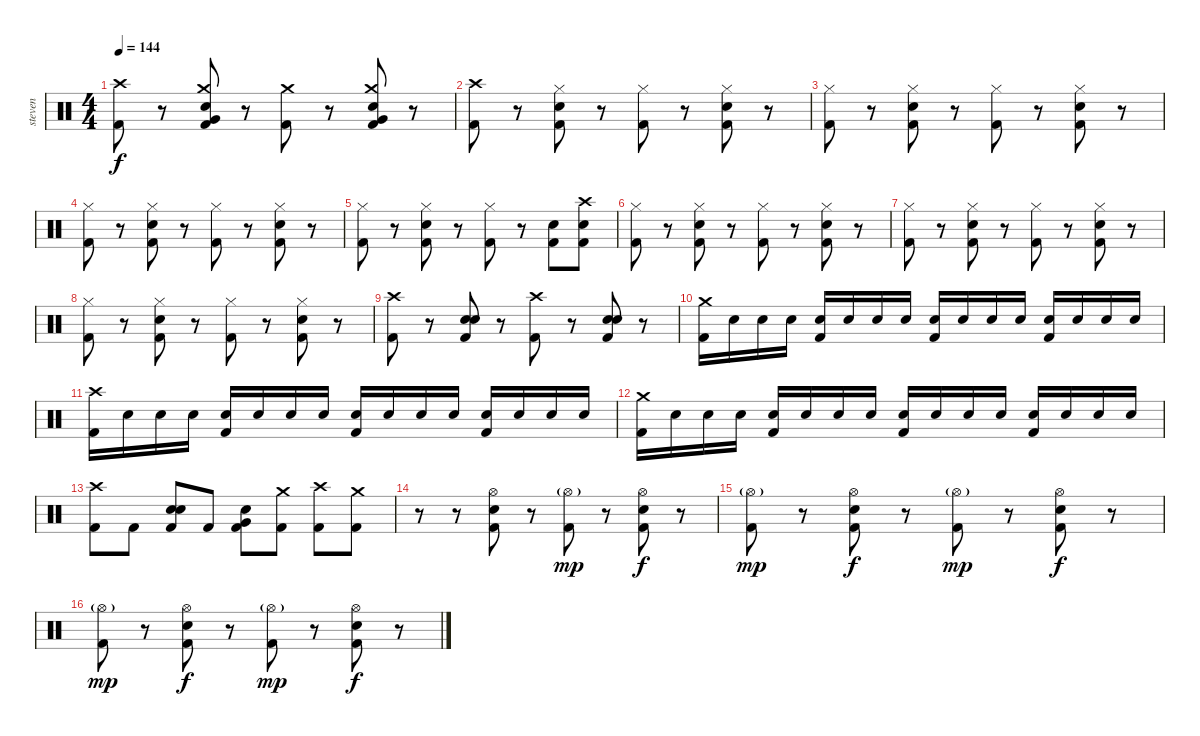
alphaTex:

\track ("steven" "steven") {instrument percussion}
\staff {score}
\articulation defaults
\ts (4 4)
\tempo 144
\clef neutral
\ks c
("Crash high (hit)" "Kick (hit) 2").8{dy f} r.8 ("Crash medium (hit)" "Electric Snare (hit)" "Very Low Tom (hit)" "Kick (hit) 2").8 r.8 ("Crash medium (hit)" "Kick (hit) 2").8 r.8 ("Crash medium (hit)" "Electric Snare (hit)" "Very Low Tom (hit)" "Kick (hit) 2").8 r.8 |
("Crash high (hit)" "Kick (hit) 2").8 r.8 ("Hi-Hat (closed)" "Electric Snare (hit)" "Kick (hit) 2").8 r.8 ("Hi-Hat (closed)" "Kick (hit) 2").8 r.8 ("Hi-Hat (closed)" "Electric Snare (hit)" "Kick (hit) 2").8 r.8 |
("Hi-Hat (closed)" "Kick (hit) 2").8 r.8 ("Hi-Hat (closed)" "Electric Snare (hit)" "Kick (hit) 2").8 r.8 ("Hi-Hat (closed)" "Kick (hit) 2").8 r.8 ("Hi-Hat (closed)" "Electric Snare (hit)" "Kick (hit) 2").8 r.8 |
("Hi-Hat (closed)" "Kick (hit) 2").8 r.8 ("Hi-Hat (closed)" "Electric Snare (hit)" "Kick (hit) 2").8 r.8 ("Hi-Hat (closed)" "Kick (hit) 2").8 r.8 ("Hi-Hat (closed)" "Electric Snare (hit)" "Kick (hit) 2").8 r.8 |
("Hi-Hat (closed)" "Kick (hit) 2").8 r.8 ("Hi-Hat (closed)" "Electric Snare (hit)" "Kick (hit) 2").8 r.8 ("Hi-Hat (closed)" "Kick (hit) 2").8 r.8 ("Electric Snare (hit)" "Kick (hit) 2").8 ("Crash high (hit)" "Electric Snare (hit)" "Kick (hit) 2").8 |
("Hi-Hat (closed)" "Kick (hit) 2").8 r.8 ("Hi-Hat (closed)" "Electric Snare (hit)" "Kick (hit) 2").8 r.8 ("Hi-Hat (closed)" "Kick (hit) 2").8 r.8 ("Hi-Hat (closed)" "Electric Snare (hit)" "Kick (hit) 2").8 r.8 |
("Hi-Hat (closed)" "Kick (hit) 2").8 r.8 ("Hi-Hat (closed)" "Electric Snare (hit)" "Kick (hit) 2").8 r.8 ("Hi-Hat (closed)" "Kick (hit) 2").8 r.8 ("Hi-Hat (closed)" "Electric Snare (hit)" "Kick (hit) 2").8 r.8 |
("Hi-Hat (closed)" "Kick (hit) 2").8 r.8 ("Hi-Hat (closed)" "Electric Snare (hit)" "Kick (hit) 2").8 r.8 ("Hi-Hat (closed)" "Kick (hit) 2").8 r.8 ("Hi-Hat (closed)" "Electric Snare (hit)" "Kick (hit) 2").8 r.8 |
("Crash high (hit)" "Kick (hit) 2").8 r.8 ("Electric Snare (hit)" "Electric Snare (hit)" "Kick (hit) 2").8 r.8 ("Crash high (hit)" "Kick (hit) 2").8 r.8 ("Electric Snare (hit)" "Electric Snare (hit)" "Kick (hit) 2").8 r.8 |
("Crash medium (hit)" "Kick (hit) 2").16 "Electric Snare (hit)".16 "Electric Snare (hit)".16 "Electric Snare (hit)".16 ("Electric Snare (hit)" "Kick (hit) 2").16 "Electric Snare (hit)".16 "Electric Snare (hit)".16 "Electric Snare (hit)".16 ("Electric Snare (hit)" "Kick (hit) 2").16 "Electric Snare (hit)".16 "Electric Snare (hit)".16 "Electric Snare (hit)".16 ("Electric Snare (hit)" "Kick (hit) 2").16 "Electric Snare (hit)".16 "Electric Snare (hit)".16 "Electric Snare (hit)".16 |
("Crash high (hit)" "Kick (hit) 2").16 "Electric Snare (hit)".16 "Electric Snare (hit)".16 "Electric Snare (hit)".16 ("Electric Snare (hit)" "Kick (hit) 2").16 "Electric Snare (hit)".16 "Electric Snare (hit)".16 "Electric Snare (hit)".16 ("Electric Snare (hit)" "Kick (hit) 2").16 "Electric Snare (hit)".16 "Electric Snare (hit)".16 "Electric Snare (hit)".16 ("Electric Snare (hit)" "Kick (hit) 2").16 "Electric Snare (hit)".16 "Electric Snare (hit)".16 "Electric Snare (hit)".16 |
("Crash medium (hit)" "Kick (hit) 2").16 "Electric Snare (hit)".16 "Electric Snare (hit)".16 "Electric Snare (hit)".16 ("Electric Snare (hit)" "Kick (hit) 2").16 "Electric Snare (hit)".16 "Electric Snare (hit)".16 "Electric Snare (hit)".16 ("Electric Snare (hit)" "Kick (hit) 2").16 "Electric Snare (hit)".16 "Electric Snare (hit)".16 "Electric Snare (hit)".16 ("Electric Snare (hit)" "Kick (hit) 2").16 "Electric Snare (hit)".16 "Electric Snare (hit)".16 "Electric Snare (hit)".16 |
("Crash high (hit)" "Kick (hit) 2").8 "Kick (hit) 2".8 ("Electric Snare (hit)" "Electric Snare (hit)" "Kick (hit) 2").8 "Kick (hit) 2".8 ("Electric Snare (hit)" "Very Low Tom (hit)" "Kick (hit) 2").8 ("Crash medium (hit)" "Kick (hit) 2").8 ("Crash high (hit)" "Kick (hit) 2").8 ("Crash medium (hit)" "Kick (hit) 2").8 |
r.8 r.8 ("Hi-Hat (open)" "Electric Snare (hit)" "Kick (hit) 2").8 r.8 ("Hi-Hat (open)"{g} "Kick (hit) 2").8{dy mp} r.8 ("Hi-Hat (open)" "Electric Snare (hit)" "Kick (hit) 2").8{dy f} r.8 |
("Hi-Hat (open)"{g} "Kick (hit) 2").8{dy mp} r.8 ("Hi-Hat (open)" "Electric Snare (hit)" "Kick (hit) 2").8{dy f} r.8 ("Hi-Hat (open)"{g} "Kick (hit) 2").8{dy mp} r.8 ("Hi-Hat (open)" "Electric Snare (hit)" "Kick (hit) 2").8{dy f} r.8 |
("Hi-Hat (open)"{g} "Kick (hit) 2").8{dy mp} r.8 ("Hi-Hat (open)" "Electric Snare (hit)" "Kick (hit) 2").8{dy f} r.8 ("Hi-Hat (open)"{g} "Kick (hit) 2").8{dy mp} r.8 ("Hi-Hat (open)" "Electric Snare (hit)" "Kick (hit) 2").8{dy f} r.8
